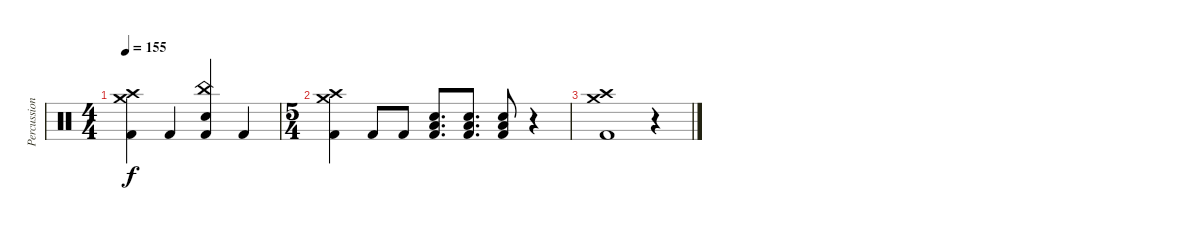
\track ("Percussion" "Percussion") {instrument percussion}
\staff {score}
\articulation defaults
\ts (4 4)
\tempo 155
\clef neutral
\ks c
("Crash medium (hit)" "Crash high (hit)" "Kick (hit) 2").4{dy f} "Kick (hit) 2".4 ("China (hit)" "Electric Snare (hit)" "Kick (hit) 2").4 "Kick (hit) 2".4 |
\ts (5 4)
("Crash medium (hit)" "Crash high (hit)" "Kick (hit) 2").4 "Kick (hit) 2".8 "Kick (hit) 2".8 ("Low Floor Tom (hit)" "Electric Snare (hit)" "Kick (hit) 2").8{d} ("Low Floor Tom (hit)" "Electric Snare (hit)" "Kick (hit) 2").8{d} ("Low Floor Tom (hit)" "Electric Snare (hit)" "Kick (hit) 2").8 r.4 |
("Crash medium (hit)" "Crash high (hit)" "Kick (hit) 2").1 r.4
